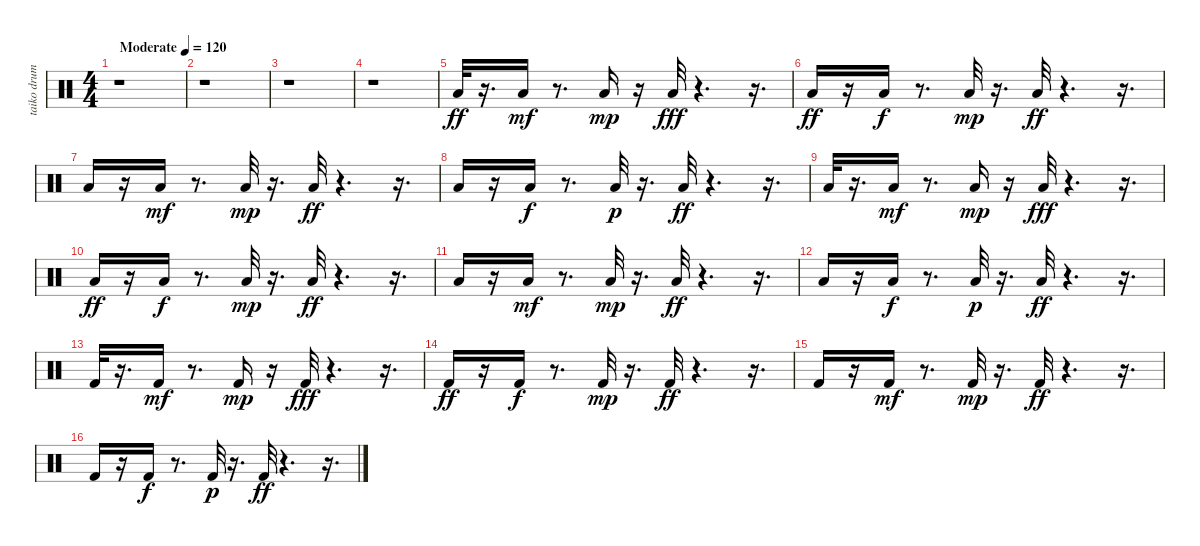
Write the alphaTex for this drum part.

\track ("taiko drum" "taiko drum") {instrument percussion}
\staff {score}
\articulation defaults
\ts (4 4)
\tempo (120 "Moderate")
\clef neutral
\ks c
r.1{dy ff} |
r.1 |
r.1 |
r.1 |
"Low Floor Tom (hit)".32 r.16{d} "Low Floor Tom (hit)".16{dy mf} r.8{d} "Low Floor Tom (hit)".16{dy mp} r.16 "Low Floor Tom (hit)".32{dy fff} r.4{d} r.16{d} |
"Low Floor Tom (hit)".16{dy ff} r.16 "Low Floor Tom (hit)".16{dy f} r.8{d} "Low Floor Tom (hit)".32{dy mp} r.16{d} "Low Floor Tom (hit)".32{dy ff} r.4{d} r.16{d} |
"Low Floor Tom (hit)".16 r.16 "Low Floor Tom (hit)".16{dy mf} r.8{d} "Low Floor Tom (hit)".32{dy mp} r.16{d} "Low Floor Tom (hit)".32{dy ff} r.4{d} r.16{d} |
"Low Floor Tom (hit)".16 r.16 "Low Floor Tom (hit)".16{dy f} r.8{d} "Low Floor Tom (hit)".32{dy p} r.16{d} "Low Floor Tom (hit)".32{dy ff} r.4{d} r.16{d} |
"Low Floor Tom (hit)".32 r.16{d} "Low Floor Tom (hit)".16{dy mf} r.8{d} "Low Floor Tom (hit)".16{dy mp} r.16 "Low Floor Tom (hit)".32{dy fff} r.4{d} r.16{d} |
"Low Floor Tom (hit)".16{dy ff} r.16 "Low Floor Tom (hit)".16{dy f} r.8{d} "Low Floor Tom (hit)".32{dy mp} r.16{d} "Low Floor Tom (hit)".32{dy ff} r.4{d} r.16{d} |
"Low Floor Tom (hit)".16 r.16 "Low Floor Tom (hit)".16{dy mf} r.8{d} "Low Floor Tom (hit)".32{dy mp} r.16{d} "Low Floor Tom (hit)".32{dy ff} r.4{d} r.16{d} |
"Low Floor Tom (hit)".16 r.16 "Low Floor Tom (hit)".16{dy f} r.8{d} "Low Floor Tom (hit)".32{dy p} r.16{d} "Low Floor Tom (hit)".32{dy ff} r.4{d} r.16{d} |
"Kick (hit) 2".32 r.16{d} "Kick (hit) 2".16{dy mf} r.8{d} "Kick (hit) 2".16{dy mp} r.16 "Kick (hit) 2".32{dy fff} r.4{d} r.16{d} |
"Kick (hit) 2".16{dy ff} r.16 "Kick (hit) 2".16{dy f} r.8{d} "Kick (hit) 2".32{dy mp} r.16{d} "Kick (hit) 2".32{dy ff} r.4{d} r.16{d} |
"Kick (hit) 2".16 r.16 "Kick (hit) 2".16{dy mf} r.8{d} "Kick (hit) 2".32{dy mp} r.16{d} "Kick (hit) 2".32{dy ff} r.4{d} r.16{d} |
"Kick (hit) 2".16 r.16 "Kick (hit) 2".16{dy f} r.8{d} "Kick (hit) 2".32{dy p} r.16{d} "Kick (hit) 2".32{dy ff} r.4{d} r.16{d}
